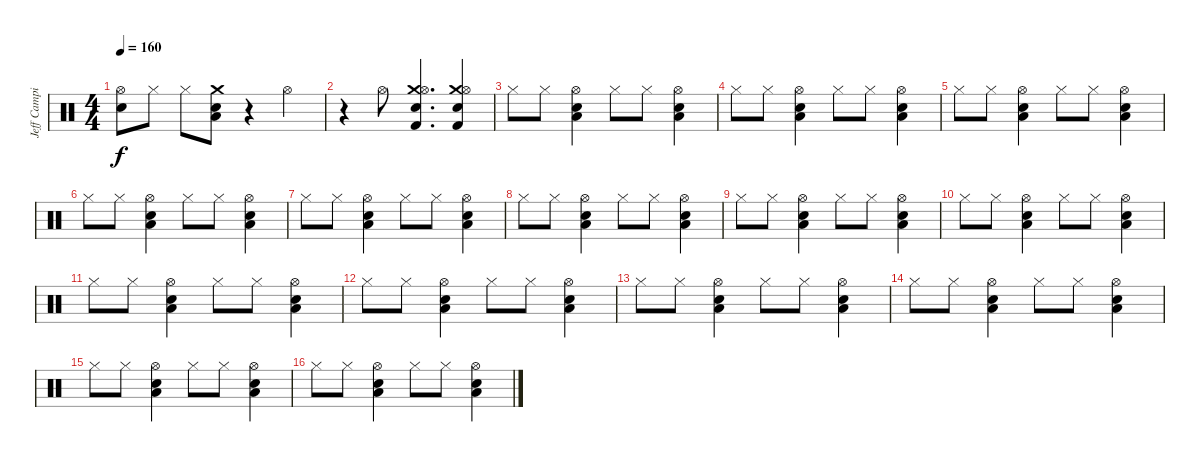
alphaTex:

\track ("Jeff Campitelli" "Jeff Campi") {instrument percussion}
\staff {score}
\articulation defaults
\ts (4 4)
\tempo 160
\clef neutral
\ks c
("Snare (hit) 2" "Hi-Hat (open)").8{dy f} "Hi-Hat (closed)".8 "Hi-Hat (closed)".8 ("Crash medium (hit)" "Snare (hit) 2" "Low Floor Tom (hit)").8 r.4 "Hi-Hat (open)".4 |
r.4 "Hi-Hat (open)".8 ("Crash medium (hit)" "Kick (hit) 2" "Hi-Hat (open)" "Snare (hit) 2").4{d} ("Crash medium (hit)" "Kick (hit) 2" "Hi-Hat (open)" "Snare (hit) 2").4 |
"Hi-Hat (closed)".8 "Hi-Hat (closed)".8 ("Low Floor Tom (hit)" "Snare (hit) 2" "Hi-Hat (open)").4 "Hi-Hat (closed)".8 "Hi-Hat (closed)".8 ("Low Floor Tom (hit)" "Snare (hit) 2" "Hi-Hat (open)").4 |
"Hi-Hat (closed)".8 "Hi-Hat (closed)".8 ("Low Floor Tom (hit)" "Snare (hit) 2" "Hi-Hat (open)").4 "Hi-Hat (closed)".8 "Hi-Hat (closed)".8 ("Low Floor Tom (hit)" "Snare (hit) 2" "Hi-Hat (open)").4 |
"Hi-Hat (closed)".8 "Hi-Hat (closed)".8 ("Low Floor Tom (hit)" "Snare (hit) 2" "Hi-Hat (open)").4 "Hi-Hat (closed)".8 "Hi-Hat (closed)".8 ("Low Floor Tom (hit)" "Snare (hit) 2" "Hi-Hat (open)").4 |
"Hi-Hat (closed)".8 "Hi-Hat (closed)".8 ("Low Floor Tom (hit)" "Snare (hit) 2" "Hi-Hat (open)").4 "Hi-Hat (closed)".8 "Hi-Hat (closed)".8 ("Low Floor Tom (hit)" "Snare (hit) 2" "Hi-Hat (open)").4 |
"Hi-Hat (closed)".8 "Hi-Hat (closed)".8 ("Low Floor Tom (hit)" "Snare (hit) 2" "Hi-Hat (open)").4 "Hi-Hat (closed)".8 "Hi-Hat (closed)".8 ("Low Floor Tom (hit)" "Snare (hit) 2" "Hi-Hat (open)").4 |
"Hi-Hat (closed)".8 "Hi-Hat (closed)".8 ("Low Floor Tom (hit)" "Snare (hit) 2" "Hi-Hat (open)").4 "Hi-Hat (closed)".8 "Hi-Hat (closed)".8 ("Low Floor Tom (hit)" "Snare (hit) 2" "Hi-Hat (open)").4 |
"Hi-Hat (closed)".8 "Hi-Hat (closed)".8 ("Low Floor Tom (hit)" "Snare (hit) 2" "Hi-Hat (open)").4 "Hi-Hat (closed)".8 "Hi-Hat (closed)".8 ("Low Floor Tom (hit)" "Snare (hit) 2" "Hi-Hat (open)").4 |
"Hi-Hat (closed)".8 "Hi-Hat (closed)".8 ("Low Floor Tom (hit)" "Snare (hit) 2" "Hi-Hat (open)").4 "Hi-Hat (closed)".8 "Hi-Hat (closed)".8 ("Low Floor Tom (hit)" "Snare (hit) 2" "Hi-Hat (open)").4 |
"Hi-Hat (closed)".8 "Hi-Hat (closed)".8 ("Low Floor Tom (hit)" "Snare (hit) 2" "Hi-Hat (open)").4 "Hi-Hat (closed)".8 "Hi-Hat (closed)".8 ("Low Floor Tom (hit)" "Snare (hit) 2" "Hi-Hat (open)").4 |
"Hi-Hat (closed)".8 "Hi-Hat (closed)".8 ("Low Floor Tom (hit)" "Snare (hit) 2" "Hi-Hat (open)").4 "Hi-Hat (closed)".8 "Hi-Hat (closed)".8 ("Low Floor Tom (hit)" "Snare (hit) 2" "Hi-Hat (open)").4 |
"Hi-Hat (closed)".8 "Hi-Hat (closed)".8 ("Low Floor Tom (hit)" "Snare (hit) 2" "Hi-Hat (open)").4 "Hi-Hat (closed)".8 "Hi-Hat (closed)".8 ("Low Floor Tom (hit)" "Snare (hit) 2" "Hi-Hat (open)").4 |
"Hi-Hat (closed)".8 "Hi-Hat (closed)".8 ("Low Floor Tom (hit)" "Snare (hit) 2" "Hi-Hat (open)").4 "Hi-Hat (closed)".8 "Hi-Hat (closed)".8 ("Low Floor Tom (hit)" "Snare (hit) 2" "Hi-Hat (open)").4 |
"Hi-Hat (closed)".8 "Hi-Hat (closed)".8 ("Low Floor Tom (hit)" "Snare (hit) 2" "Hi-Hat (open)").4 "Hi-Hat (closed)".8 "Hi-Hat (closed)".8 ("Low Floor Tom (hit)" "Snare (hit) 2" "Hi-Hat (open)").4 |
"Hi-Hat (closed)".8 "Hi-Hat (closed)".8 ("Low Floor Tom (hit)" "Snare (hit) 2" "Hi-Hat (open)").4 "Hi-Hat (closed)".8 "Hi-Hat (closed)".8 ("Low Floor Tom (hit)" "Snare (hit) 2" "Hi-Hat (open)").4
